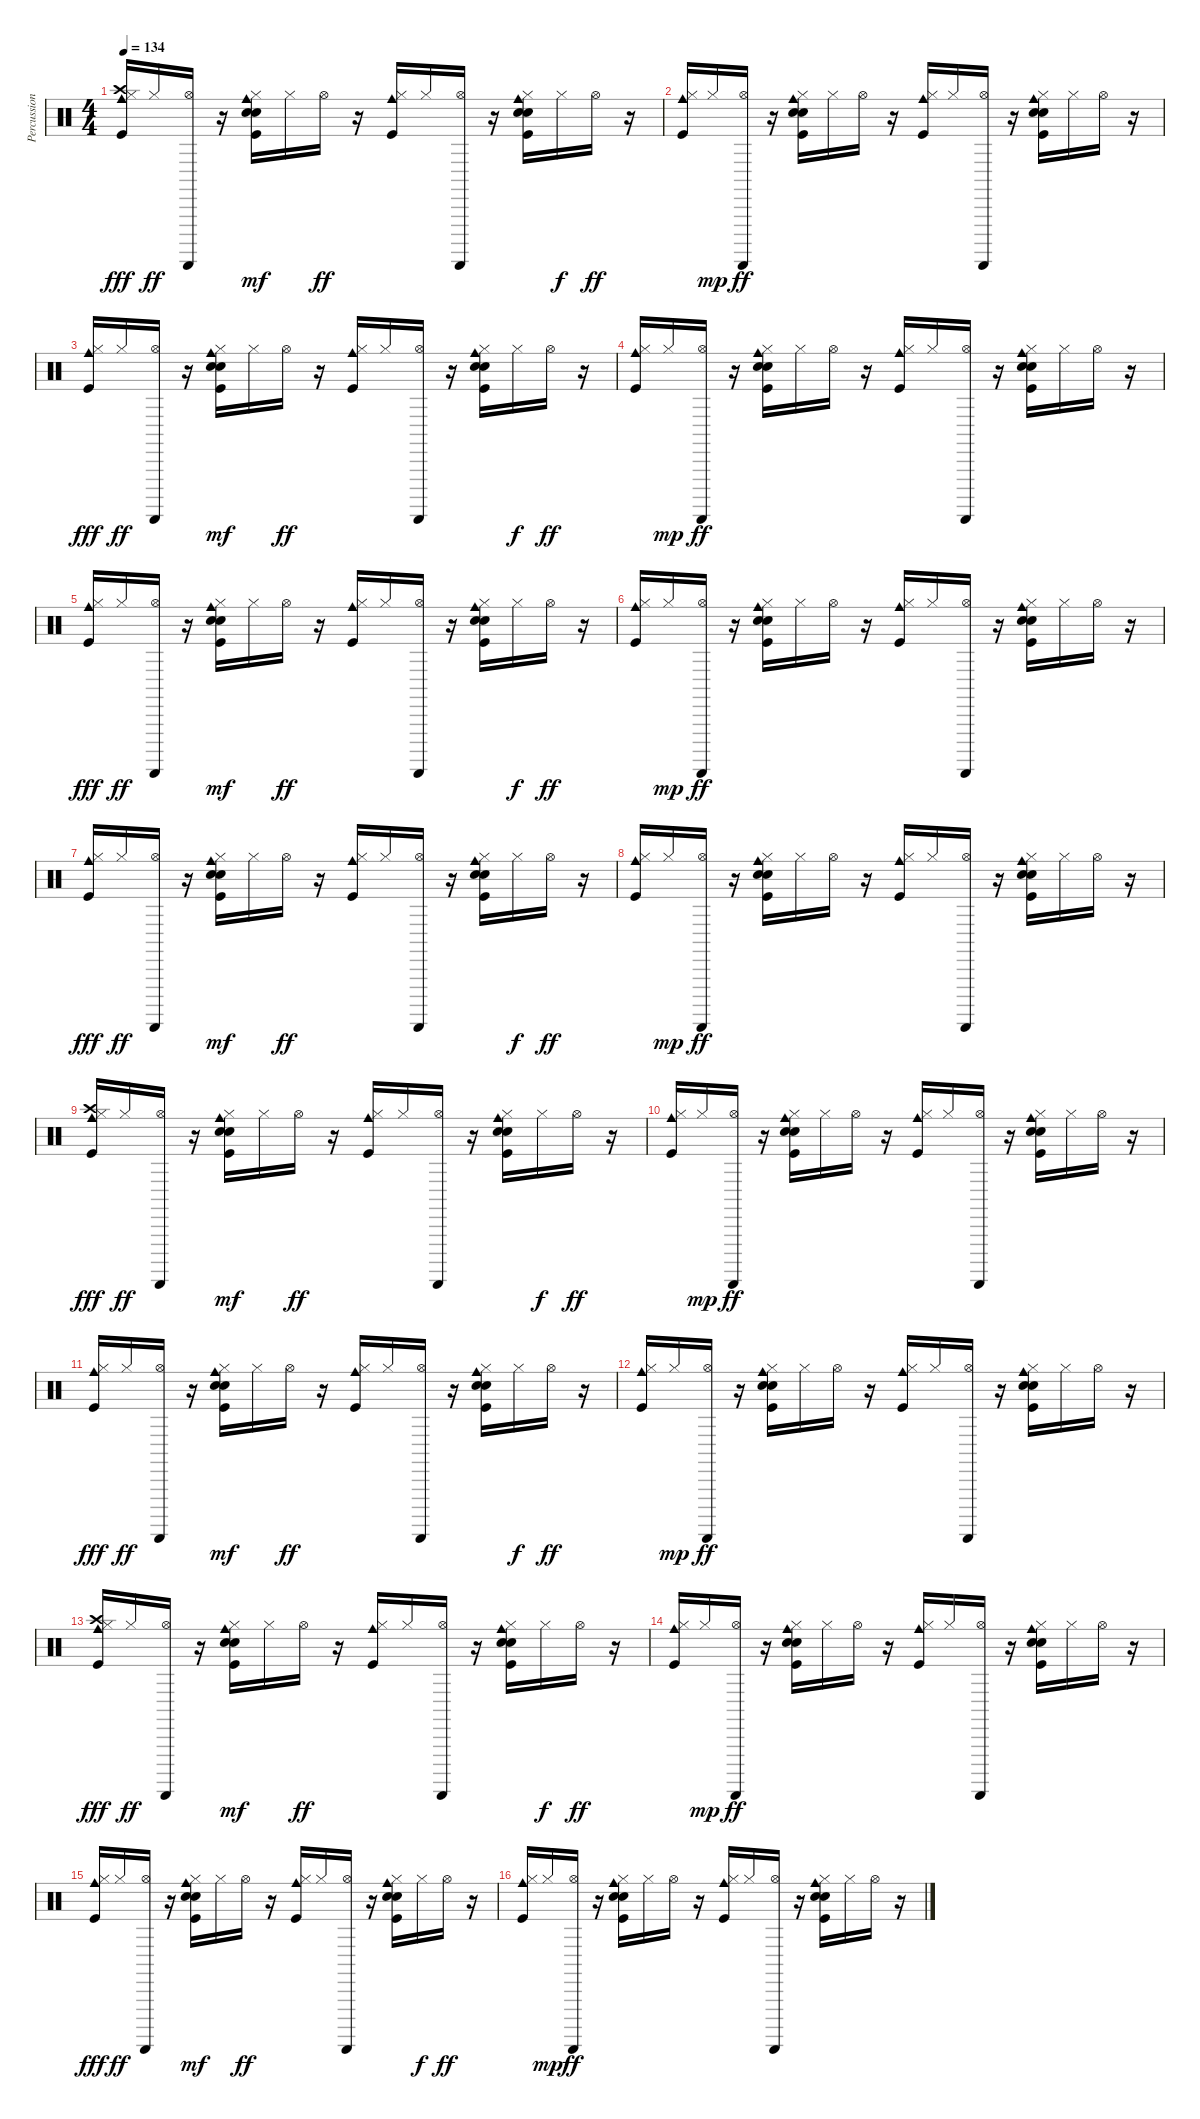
\track ("Percussion" "Percussion") {instrument percussion}
\staff {score}
\articulation defaults
\ts (4 4)
\tempo 134
\clef neutral
\ks c
("Kick (hit)" "Hi-Hat (closed)" "Crash high (hit)" "Cowbell medium (hit)").16{dy fff} "Hi-Hat (closed)".16{dy ff} ("Hi-Hat (open)" "Guiro (scrap-return)").16 r.16 ("Kick (hit)" "Hand Clap (hit)" "Electric Snare (hit)" "Hi-Hat (closed)" "Cowbell medium (hit)").16{dy mf} "Hi-Hat (closed)".16 "Hi-Hat (open)".16{dy ff} r.16 ("Kick (hit)" "Hi-Hat (closed)" "Cowbell medium (hit)").16 "Hi-Hat (closed)".16 ("Hi-Hat (open)" "Guiro (scrap-return)").16 r.16 ("Kick (hit)" "Hand Clap (hit)" "Electric Snare (hit)" "Hi-Hat (closed)" "Cowbell medium (hit)").16 "Hi-Hat (closed)".16{dy f} "Hi-Hat (open)".16{dy ff} r.16 |
("Kick (hit)" "Hi-Hat (closed)" "Cowbell medium (hit)").16 "Hi-Hat (closed)".16{dy mp} ("Hi-Hat (open)" "Guiro (scrap-return)").16{dy ff} r.16 ("Kick (hit)" "Hand Clap (hit)" "Electric Snare (hit)" "Hi-Hat (closed)" "Cowbell medium (hit)").16 "Hi-Hat (closed)".16 "Hi-Hat (open)".16 r.16 ("Kick (hit)" "Hi-Hat (closed)" "Cowbell medium (hit)").16 "Hi-Hat (closed)".16 ("Hi-Hat (open)" "Guiro (scrap-return)").16 r.16 ("Kick (hit)" "Hand Clap (hit)" "Electric Snare (hit)" "Hi-Hat (closed)" "Cowbell medium (hit)").16 "Hi-Hat (closed)".16 "Hi-Hat (open)".16 r.16 |
("Kick (hit)" "Hi-Hat (closed)" "Cowbell medium (hit)").16{dy fff} "Hi-Hat (closed)".16{dy ff} ("Hi-Hat (open)" "Guiro (scrap-return)").16 r.16 ("Kick (hit)" "Hand Clap (hit)" "Electric Snare (hit)" "Hi-Hat (closed)" "Cowbell medium (hit)").16{dy mf} "Hi-Hat (closed)".16 "Hi-Hat (open)".16{dy ff} r.16 ("Kick (hit)" "Hi-Hat (closed)" "Cowbell medium (hit)").16 "Hi-Hat (closed)".16 ("Hi-Hat (open)" "Guiro (scrap-return)").16 r.16 ("Kick (hit)" "Hand Clap (hit)" "Electric Snare (hit)" "Hi-Hat (closed)" "Cowbell medium (hit)").16 "Hi-Hat (closed)".16{dy f} "Hi-Hat (open)".16{dy ff} r.16 |
("Kick (hit)" "Hi-Hat (closed)" "Cowbell medium (hit)").16 "Hi-Hat (closed)".16{dy mp} ("Hi-Hat (open)" "Guiro (scrap-return)").16{dy ff} r.16 ("Kick (hit)" "Hand Clap (hit)" "Electric Snare (hit)" "Hi-Hat (closed)" "Cowbell medium (hit)").16 "Hi-Hat (closed)".16 "Hi-Hat (open)".16 r.16 ("Kick (hit)" "Hi-Hat (closed)" "Cowbell medium (hit)").16 "Hi-Hat (closed)".16 ("Hi-Hat (open)" "Guiro (scrap-return)").16 r.16 ("Kick (hit)" "Hand Clap (hit)" "Electric Snare (hit)" "Hi-Hat (closed)" "Cowbell medium (hit)").16 "Hi-Hat (closed)".16 "Hi-Hat (open)".16 r.16 |
("Kick (hit)" "Hi-Hat (closed)" "Cowbell medium (hit)").16{dy fff} "Hi-Hat (closed)".16{dy ff} ("Hi-Hat (open)" "Guiro (scrap-return)").16 r.16 ("Kick (hit)" "Hand Clap (hit)" "Electric Snare (hit)" "Hi-Hat (closed)" "Cowbell medium (hit)").16{dy mf} "Hi-Hat (closed)".16 "Hi-Hat (open)".16{dy ff} r.16 ("Kick (hit)" "Hi-Hat (closed)" "Cowbell medium (hit)").16 "Hi-Hat (closed)".16 ("Hi-Hat (open)" "Guiro (scrap-return)").16 r.16 ("Kick (hit)" "Hand Clap (hit)" "Electric Snare (hit)" "Hi-Hat (closed)" "Cowbell medium (hit)").16 "Hi-Hat (closed)".16{dy f} "Hi-Hat (open)".16{dy ff} r.16 |
("Kick (hit)" "Hi-Hat (closed)" "Cowbell medium (hit)").16 "Hi-Hat (closed)".16{dy mp} ("Hi-Hat (open)" "Guiro (scrap-return)").16{dy ff} r.16 ("Kick (hit)" "Hand Clap (hit)" "Electric Snare (hit)" "Hi-Hat (closed)" "Cowbell medium (hit)").16 "Hi-Hat (closed)".16 "Hi-Hat (open)".16 r.16 ("Kick (hit)" "Hi-Hat (closed)" "Cowbell medium (hit)").16 "Hi-Hat (closed)".16 ("Hi-Hat (open)" "Guiro (scrap-return)").16 r.16 ("Kick (hit)" "Hand Clap (hit)" "Electric Snare (hit)" "Hi-Hat (closed)" "Cowbell medium (hit)").16 "Hi-Hat (closed)".16 "Hi-Hat (open)".16 r.16 |
("Kick (hit)" "Hi-Hat (closed)" "Cowbell medium (hit)").16{dy fff} "Hi-Hat (closed)".16{dy ff} ("Hi-Hat (open)" "Guiro (scrap-return)").16 r.16 ("Kick (hit)" "Hand Clap (hit)" "Electric Snare (hit)" "Hi-Hat (closed)" "Cowbell medium (hit)").16{dy mf} "Hi-Hat (closed)".16 "Hi-Hat (open)".16{dy ff} r.16 ("Kick (hit)" "Hi-Hat (closed)" "Cowbell medium (hit)").16 "Hi-Hat (closed)".16 ("Hi-Hat (open)" "Guiro (scrap-return)").16 r.16 ("Kick (hit)" "Hand Clap (hit)" "Electric Snare (hit)" "Hi-Hat (closed)" "Cowbell medium (hit)").16 "Hi-Hat (closed)".16{dy f} "Hi-Hat (open)".16{dy ff} r.16 |
("Kick (hit)" "Hi-Hat (closed)" "Cowbell medium (hit)").16 "Hi-Hat (closed)".16{dy mp} ("Hi-Hat (open)" "Guiro (scrap-return)").16{dy ff} r.16 ("Kick (hit)" "Hand Clap (hit)" "Electric Snare (hit)" "Hi-Hat (closed)" "Cowbell medium (hit)").16 "Hi-Hat (closed)".16 "Hi-Hat (open)".16 r.16 ("Kick (hit)" "Hi-Hat (closed)" "Cowbell medium (hit)").16 "Hi-Hat (closed)".16 ("Hi-Hat (open)" "Guiro (scrap-return)").16 r.16 ("Kick (hit)" "Hand Clap (hit)" "Electric Snare (hit)" "Hi-Hat (closed)" "Cowbell medium (hit)").16 "Hi-Hat (closed)".16 "Hi-Hat (open)".16 r.16 |
("Kick (hit)" "Hi-Hat (closed)" "Crash high (hit)" "Cowbell medium (hit)").16{dy fff} "Hi-Hat (closed)".16{dy ff} ("Hi-Hat (open)" "Guiro (scrap-return)").16 r.16 ("Kick (hit)" "Hand Clap (hit)" "Electric Snare (hit)" "Hi-Hat (closed)" "Cowbell medium (hit)").16{dy mf} "Hi-Hat (closed)".16 "Hi-Hat (open)".16{dy ff} r.16 ("Kick (hit)" "Hi-Hat (closed)" "Cowbell medium (hit)").16 "Hi-Hat (closed)".16 ("Hi-Hat (open)" "Guiro (scrap-return)").16 r.16 ("Kick (hit)" "Hand Clap (hit)" "Electric Snare (hit)" "Hi-Hat (closed)" "Cowbell medium (hit)").16 "Hi-Hat (closed)".16{dy f} "Hi-Hat (open)".16{dy ff} r.16 |
("Kick (hit)" "Hi-Hat (closed)" "Cowbell medium (hit)").16 "Hi-Hat (closed)".16{dy mp} ("Hi-Hat (open)" "Guiro (scrap-return)").16{dy ff} r.16 ("Kick (hit)" "Hand Clap (hit)" "Electric Snare (hit)" "Hi-Hat (closed)" "Cowbell medium (hit)").16 "Hi-Hat (closed)".16 "Hi-Hat (open)".16 r.16 ("Kick (hit)" "Hi-Hat (closed)" "Cowbell medium (hit)").16 "Hi-Hat (closed)".16 ("Hi-Hat (open)" "Guiro (scrap-return)").16 r.16 ("Kick (hit)" "Hand Clap (hit)" "Electric Snare (hit)" "Hi-Hat (closed)" "Cowbell medium (hit)").16 "Hi-Hat (closed)".16 "Hi-Hat (open)".16 r.16 |
("Kick (hit)" "Hi-Hat (closed)" "Cowbell medium (hit)").16{dy fff} "Hi-Hat (closed)".16{dy ff} ("Hi-Hat (open)" "Guiro (scrap-return)").16 r.16 ("Kick (hit)" "Hand Clap (hit)" "Electric Snare (hit)" "Hi-Hat (closed)" "Cowbell medium (hit)").16{dy mf} "Hi-Hat (closed)".16 "Hi-Hat (open)".16{dy ff} r.16 ("Kick (hit)" "Hi-Hat (closed)" "Cowbell medium (hit)").16 "Hi-Hat (closed)".16 ("Hi-Hat (open)" "Guiro (scrap-return)").16 r.16 ("Kick (hit)" "Hand Clap (hit)" "Electric Snare (hit)" "Hi-Hat (closed)" "Cowbell medium (hit)").16 "Hi-Hat (closed)".16{dy f} "Hi-Hat (open)".16{dy ff} r.16 |
("Kick (hit)" "Hi-Hat (closed)" "Cowbell medium (hit)").16 "Hi-Hat (closed)".16{dy mp} ("Hi-Hat (open)" "Guiro (scrap-return)").16{dy ff} r.16 ("Kick (hit)" "Hand Clap (hit)" "Electric Snare (hit)" "Hi-Hat (closed)" "Cowbell medium (hit)").16 "Hi-Hat (closed)".16 "Hi-Hat (open)".16 r.16 ("Kick (hit)" "Hi-Hat (closed)" "Cowbell medium (hit)").16 "Hi-Hat (closed)".16 ("Hi-Hat (open)" "Guiro (scrap-return)").16 r.16 ("Kick (hit)" "Hand Clap (hit)" "Electric Snare (hit)" "Hi-Hat (closed)" "Cowbell medium (hit)").16 "Hi-Hat (closed)".16 "Hi-Hat (open)".16 r.16 |
("Kick (hit)" "Hi-Hat (closed)" "Crash high (hit)" "Cowbell medium (hit)").16{dy fff} "Hi-Hat (closed)".16{dy ff} ("Hi-Hat (open)" "Guiro (scrap-return)").16 r.16 ("Kick (hit)" "Hand Clap (hit)" "Electric Snare (hit)" "Hi-Hat (closed)" "Cowbell medium (hit)").16{dy mf} "Hi-Hat (closed)".16 "Hi-Hat (open)".16{dy ff} r.16 ("Kick (hit)" "Hi-Hat (closed)" "Cowbell medium (hit)").16 "Hi-Hat (closed)".16 ("Hi-Hat (open)" "Guiro (scrap-return)").16 r.16 ("Kick (hit)" "Hand Clap (hit)" "Electric Snare (hit)" "Hi-Hat (closed)" "Cowbell medium (hit)").16 "Hi-Hat (closed)".16{dy f} "Hi-Hat (open)".16{dy ff} r.16 |
("Kick (hit)" "Hi-Hat (closed)" "Cowbell medium (hit)").16 "Hi-Hat (closed)".16{dy mp} ("Hi-Hat (open)" "Guiro (scrap-return)").16{dy ff} r.16 ("Kick (hit)" "Hand Clap (hit)" "Electric Snare (hit)" "Hi-Hat (closed)" "Cowbell medium (hit)").16 "Hi-Hat (closed)".16 "Hi-Hat (open)".16 r.16 ("Kick (hit)" "Hi-Hat (closed)" "Cowbell medium (hit)").16 "Hi-Hat (closed)".16 ("Hi-Hat (open)" "Guiro (scrap-return)").16 r.16 ("Kick (hit)" "Hand Clap (hit)" "Electric Snare (hit)" "Hi-Hat (closed)" "Cowbell medium (hit)").16 "Hi-Hat (closed)".16 "Hi-Hat (open)".16 r.16 |
("Kick (hit)" "Hi-Hat (closed)" "Cowbell medium (hit)").16{dy fff} "Hi-Hat (closed)".16{dy ff} ("Hi-Hat (open)" "Guiro (scrap-return)").16 r.16 ("Kick (hit)" "Hand Clap (hit)" "Electric Snare (hit)" "Hi-Hat (closed)" "Cowbell medium (hit)").16{dy mf} "Hi-Hat (closed)".16 "Hi-Hat (open)".16{dy ff} r.16 ("Kick (hit)" "Hi-Hat (closed)" "Cowbell medium (hit)").16 "Hi-Hat (closed)".16 ("Hi-Hat (open)" "Guiro (scrap-return)").16 r.16 ("Kick (hit)" "Hand Clap (hit)" "Electric Snare (hit)" "Hi-Hat (closed)" "Cowbell medium (hit)").16 "Hi-Hat (closed)".16{dy f} "Hi-Hat (open)".16{dy ff} r.16 |
("Kick (hit)" "Hi-Hat (closed)" "Cowbell medium (hit)").16 "Hi-Hat (closed)".16{dy mp} ("Hi-Hat (open)" "Guiro (scrap-return)").16{dy ff} r.16 ("Kick (hit)" "Hand Clap (hit)" "Electric Snare (hit)" "Hi-Hat (closed)" "Cowbell medium (hit)").16 "Hi-Hat (closed)".16 "Hi-Hat (open)".16 r.16 ("Kick (hit)" "Hi-Hat (closed)" "Cowbell medium (hit)").16 "Hi-Hat (closed)".16 ("Hi-Hat (open)" "Guiro (scrap-return)").16 r.16 ("Kick (hit)" "Hand Clap (hit)" "Electric Snare (hit)" "Hi-Hat (closed)" "Cowbell medium (hit)").16 "Hi-Hat (closed)".16 "Hi-Hat (open)".16 r.16
